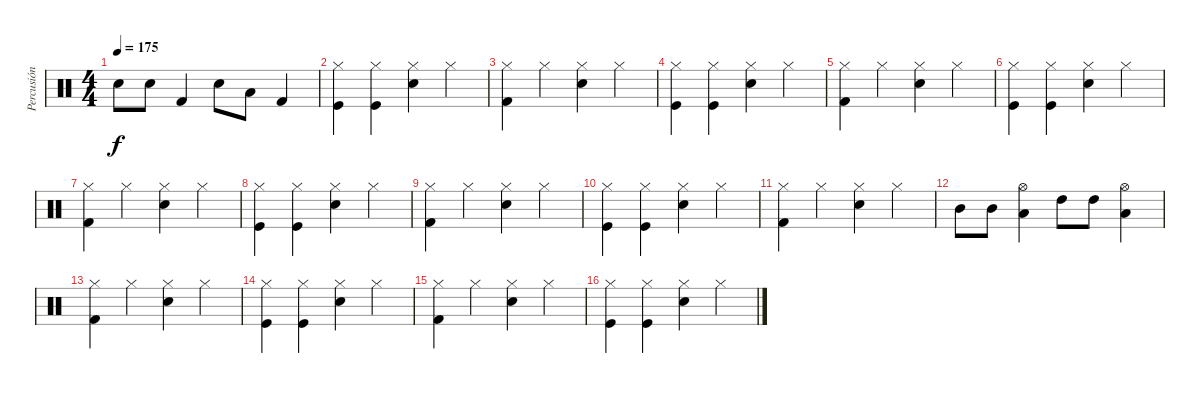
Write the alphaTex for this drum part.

\track ("Percusión" "Percusión") {instrument percussion}
\staff {score}
\articulation defaults
\ts (4 4)
\tempo 175
\clef neutral
\ks c "Snare (hit) 2".8{dy f} "Snare (hit) 2".8 "Kick (hit) 2".4 "Snare (hit) 2".8 "Low Floor Tom (hit)".8 "Kick (hit) 2".4
|
("Kick (hit)" "Hi-Hat (closed)").4 ("Kick (hit)" "Hi-Hat (closed)").4 ("Electric Snare (hit)" "Hi-Hat (closed)").4 "Hi-Hat (closed)".4 |
("Hi-Hat (closed)" "Kick (hit) 2").4 "Hi-Hat (closed)".4 ("Snare (hit) 2" "Hi-Hat (closed)").4 "Hi-Hat (closed)".4 |
("Kick (hit)" "Hi-Hat (closed)").4 ("Kick (hit)" "Hi-Hat (closed)").4 ("Electric Snare (hit)" "Hi-Hat (closed)").4 "Hi-Hat (closed)".4 |
("Hi-Hat (closed)" "Kick (hit) 2").4 "Hi-Hat (closed)".4 ("Snare (hit) 2" "Hi-Hat (closed)").4 "Hi-Hat (closed)".4 |
("Kick (hit)" "Hi-Hat (closed)").4 ("Kick (hit)" "Hi-Hat (closed)").4 ("Electric Snare (hit)" "Hi-Hat (closed)").4 "Hi-Hat (closed)".4 |
("Hi-Hat (closed)" "Kick (hit) 2").4 "Hi-Hat (closed)".4 ("Snare (hit) 2" "Hi-Hat (closed)").4 "Hi-Hat (closed)".4 |
("Kick (hit)" "Hi-Hat (closed)").4 ("Kick (hit)" "Hi-Hat (closed)").4 ("Electric Snare (hit)" "Hi-Hat (closed)").4 "Hi-Hat (closed)".4 |
("Hi-Hat (closed)" "Kick (hit) 2").4 "Hi-Hat (closed)".4 ("Snare (hit) 2" "Hi-Hat (closed)").4 "Hi-Hat (closed)".4 |
("Kick (hit)" "Hi-Hat (closed)").4 ("Kick (hit)" "Hi-Hat (closed)").4 ("Electric Snare (hit)" "Hi-Hat (closed)").4 "Hi-Hat (closed)".4 |
("Hi-Hat (closed)" "Kick (hit) 2").4 "Hi-Hat (closed)".4 ("Snare (hit) 2" "Hi-Hat (closed)").4 "Hi-Hat (closed)".4 |
"Mid Tom (hit)".8 "Mid Tom (hit)".8 ("Low Tom (hit)" "Hi-Hat (open)").4 "High Tom (hit)".8 "High Tom (hit)".8 ("Low Tom (hit)" "Hi-Hat (open)").4 |
("Hi-Hat (closed)" "Kick (hit) 2").4 "Hi-Hat (closed)".4 ("Snare (hit) 2" "Hi-Hat (closed)").4 "Hi-Hat (closed)".4 |
("Kick (hit)" "Hi-Hat (closed)").4 ("Kick (hit)" "Hi-Hat (closed)").4 ("Electric Snare (hit)" "Hi-Hat (closed)").4 "Hi-Hat (closed)".4 |
("Hi-Hat (closed)" "Kick (hit) 2").4 "Hi-Hat (closed)".4 ("Snare (hit) 2" "Hi-Hat (closed)").4 "Hi-Hat (closed)".4 |
("Kick (hit)" "Hi-Hat (closed)").4 ("Kick (hit)" "Hi-Hat (closed)").4 ("Electric Snare (hit)" "Hi-Hat (closed)").4 "Hi-Hat (closed)".4
